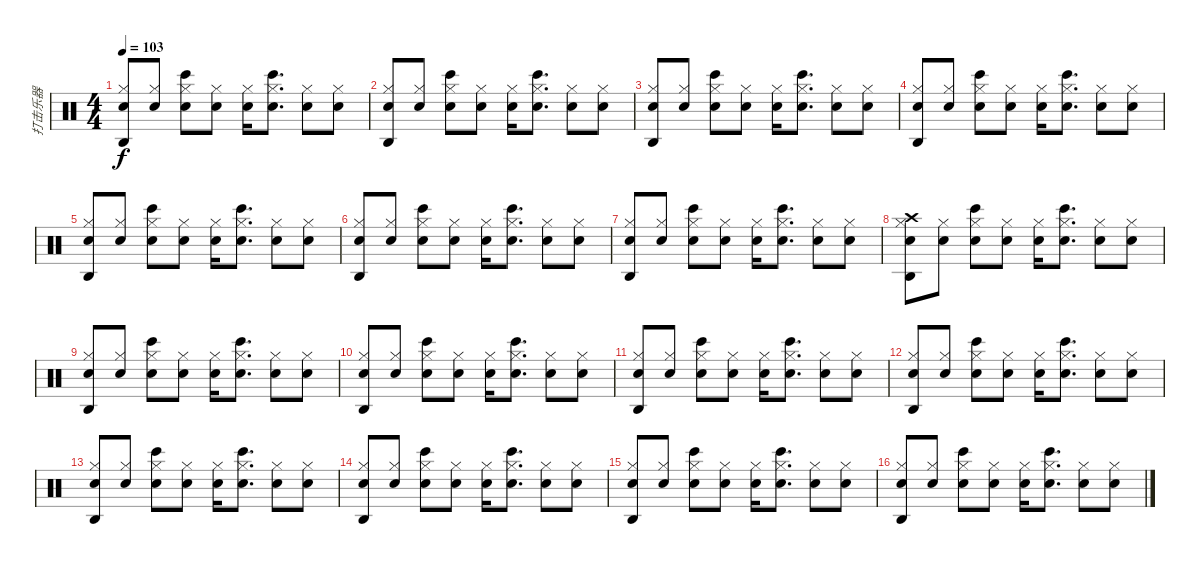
\track ("打击乐器" "打击乐器") {instrument percussion}
\staff {score}
\articulation defaults
\ts (4 4)
\tempo 103
\clef neutral
\ks c
("Hi-Hat (closed)" "Metronome (bell)" "Agogo high (hit)").8{dy f} ("Hi-Hat (closed)" "Metronome (bell)").8 ("Hi-Hat (closed)" "Metronome (bell)" "Bongo High (hit)").8 ("Hi-Hat (closed)" "Metronome (bell)").8 ("Hi-Hat (closed)" "Metronome (bell)").16 ("Hi-Hat (closed)" "Metronome (bell)" "Bongo High (hit)").8{d} ("Hi-Hat (closed)" "Metronome (bell)").8 ("Hi-Hat (closed)" "Metronome (bell)").8 |
("Hi-Hat (closed)" "Metronome (bell)" "Agogo high (hit)").8 ("Hi-Hat (closed)" "Metronome (bell)").8 ("Hi-Hat (closed)" "Metronome (bell)" "Bongo High (hit)").8 ("Hi-Hat (closed)" "Metronome (bell)").8 ("Hi-Hat (closed)" "Metronome (bell)").16 ("Hi-Hat (closed)" "Metronome (bell)" "Bongo High (hit)").8{d} ("Hi-Hat (closed)" "Metronome (bell)").8 ("Hi-Hat (closed)" "Metronome (bell)").8 |
("Hi-Hat (closed)" "Metronome (bell)" "Agogo high (hit)").8 ("Hi-Hat (closed)" "Metronome (bell)").8 ("Hi-Hat (closed)" "Metronome (bell)" "Bongo High (hit)").8 ("Hi-Hat (closed)" "Metronome (bell)").8 ("Hi-Hat (closed)" "Metronome (bell)").16 ("Hi-Hat (closed)" "Metronome (bell)" "Bongo High (hit)").8{d} ("Hi-Hat (closed)" "Metronome (bell)").8 ("Hi-Hat (closed)" "Metronome (bell)").8 |
("Hi-Hat (closed)" "Metronome (bell)" "Agogo high (hit)").8 ("Hi-Hat (closed)" "Metronome (bell)").8 ("Hi-Hat (closed)" "Metronome (bell)" "Bongo High (hit)").8 ("Hi-Hat (closed)" "Metronome (bell)").8 ("Hi-Hat (closed)" "Metronome (bell)").16 ("Hi-Hat (closed)" "Metronome (bell)" "Bongo High (hit)").8{d} ("Hi-Hat (closed)" "Metronome (bell)").8 ("Hi-Hat (closed)" "Metronome (bell)").8 |
("Hi-Hat (closed)" "Metronome (bell)" "Agogo high (hit)").8 ("Hi-Hat (closed)" "Metronome (bell)").8 ("Hi-Hat (closed)" "Metronome (bell)" "Bongo High (hit)").8 ("Hi-Hat (closed)" "Metronome (bell)").8 ("Hi-Hat (closed)" "Metronome (bell)").16 ("Hi-Hat (closed)" "Metronome (bell)" "Bongo High (hit)").8{d} ("Hi-Hat (closed)" "Metronome (bell)").8 ("Hi-Hat (closed)" "Metronome (bell)").8 |
("Hi-Hat (closed)" "Metronome (bell)" "Agogo high (hit)").8 ("Hi-Hat (closed)" "Metronome (bell)").8 ("Hi-Hat (closed)" "Metronome (bell)" "Bongo High (hit)").8 ("Hi-Hat (closed)" "Metronome (bell)").8 ("Hi-Hat (closed)" "Metronome (bell)").16 ("Hi-Hat (closed)" "Metronome (bell)" "Bongo High (hit)").8{d} ("Hi-Hat (closed)" "Metronome (bell)").8 ("Hi-Hat (closed)" "Metronome (bell)").8 |
("Hi-Hat (closed)" "Metronome (bell)" "Agogo high (hit)").8 ("Hi-Hat (closed)" "Metronome (bell)").8 ("Hi-Hat (closed)" "Metronome (bell)" "Bongo High (hit)").8 ("Hi-Hat (closed)" "Metronome (bell)").8 ("Hi-Hat (closed)" "Metronome (bell)").16 ("Hi-Hat (closed)" "Metronome (bell)" "Bongo High (hit)").8{d} ("Hi-Hat (closed)" "Metronome (bell)").8 ("Hi-Hat (closed)" "Metronome (bell)").8 |
("Hi-Hat (closed)" "Metronome (bell)" "Agogo high (hit)" "Crash high (hit)").8 ("Hi-Hat (closed)" "Metronome (bell)").8 ("Hi-Hat (closed)" "Metronome (bell)" "Bongo High (hit)").8 ("Hi-Hat (closed)" "Metronome (bell)").8 ("Hi-Hat (closed)" "Metronome (bell)").16 ("Hi-Hat (closed)" "Metronome (bell)" "Bongo High (hit)").8{d} ("Hi-Hat (closed)" "Metronome (bell)").8 ("Hi-Hat (closed)" "Metronome (bell)").8 |
("Hi-Hat (closed)" "Metronome (bell)" "Agogo high (hit)").8 ("Hi-Hat (closed)" "Metronome (bell)").8 ("Hi-Hat (closed)" "Metronome (bell)" "Bongo High (hit)").8 ("Hi-Hat (closed)" "Metronome (bell)").8 ("Hi-Hat (closed)" "Metronome (bell)").16 ("Hi-Hat (closed)" "Metronome (bell)" "Bongo High (hit)").8{d} ("Hi-Hat (closed)" "Metronome (bell)").8 ("Hi-Hat (closed)" "Metronome (bell)").8 |
("Hi-Hat (closed)" "Metronome (bell)" "Agogo high (hit)").8 ("Hi-Hat (closed)" "Metronome (bell)").8 ("Hi-Hat (closed)" "Metronome (bell)" "Bongo High (hit)").8 ("Hi-Hat (closed)" "Metronome (bell)").8 ("Hi-Hat (closed)" "Metronome (bell)").16 ("Hi-Hat (closed)" "Metronome (bell)" "Bongo High (hit)").8{d} ("Hi-Hat (closed)" "Metronome (bell)").8 ("Hi-Hat (closed)" "Metronome (bell)").8 |
("Hi-Hat (closed)" "Metronome (bell)" "Agogo high (hit)").8 ("Hi-Hat (closed)" "Metronome (bell)").8 ("Hi-Hat (closed)" "Metronome (bell)" "Bongo High (hit)").8 ("Hi-Hat (closed)" "Metronome (bell)").8 ("Hi-Hat (closed)" "Metronome (bell)").16 ("Hi-Hat (closed)" "Metronome (bell)" "Bongo High (hit)").8{d} ("Hi-Hat (closed)" "Metronome (bell)").8 ("Hi-Hat (closed)" "Metronome (bell)").8 |
("Hi-Hat (closed)" "Metronome (bell)" "Agogo high (hit)").8 ("Hi-Hat (closed)" "Metronome (bell)").8 ("Hi-Hat (closed)" "Metronome (bell)" "Bongo High (hit)").8 ("Hi-Hat (closed)" "Metronome (bell)").8 ("Hi-Hat (closed)" "Metronome (bell)").16 ("Hi-Hat (closed)" "Metronome (bell)" "Bongo High (hit)").8{d} ("Hi-Hat (closed)" "Metronome (bell)").8 ("Hi-Hat (closed)" "Metronome (bell)").8 |
("Hi-Hat (closed)" "Metronome (bell)" "Agogo high (hit)").8 ("Hi-Hat (closed)" "Metronome (bell)").8 ("Hi-Hat (closed)" "Metronome (bell)" "Bongo High (hit)").8 ("Hi-Hat (closed)" "Metronome (bell)").8 ("Hi-Hat (closed)" "Metronome (bell)").16 ("Hi-Hat (closed)" "Metronome (bell)" "Bongo High (hit)").8{d} ("Hi-Hat (closed)" "Metronome (bell)").8 ("Hi-Hat (closed)" "Metronome (bell)").8 |
("Hi-Hat (closed)" "Metronome (bell)" "Agogo high (hit)").8 ("Hi-Hat (closed)" "Metronome (bell)").8 ("Hi-Hat (closed)" "Metronome (bell)" "Bongo High (hit)").8 ("Hi-Hat (closed)" "Metronome (bell)").8 ("Hi-Hat (closed)" "Metronome (bell)").16 ("Hi-Hat (closed)" "Metronome (bell)" "Bongo High (hit)").8{d} ("Hi-Hat (closed)" "Metronome (bell)").8 ("Hi-Hat (closed)" "Metronome (bell)").8 |
("Hi-Hat (closed)" "Metronome (bell)" "Agogo high (hit)").8 ("Hi-Hat (closed)" "Metronome (bell)").8 ("Hi-Hat (closed)" "Metronome (bell)" "Bongo High (hit)").8 ("Hi-Hat (closed)" "Metronome (bell)").8 ("Hi-Hat (closed)" "Metronome (bell)").16 ("Hi-Hat (closed)" "Metronome (bell)" "Bongo High (hit)").8{d} ("Hi-Hat (closed)" "Metronome (bell)").8 ("Hi-Hat (closed)" "Metronome (bell)").8 |
("Hi-Hat (closed)" "Metronome (bell)" "Agogo high (hit)").8 ("Hi-Hat (closed)" "Metronome (bell)").8 ("Hi-Hat (closed)" "Metronome (bell)" "Bongo High (hit)").8 ("Hi-Hat (closed)" "Metronome (bell)").8 ("Hi-Hat (closed)" "Metronome (bell)").16 ("Hi-Hat (closed)" "Metronome (bell)" "Bongo High (hit)").8{d} ("Hi-Hat (closed)" "Metronome (bell)").8 ("Hi-Hat (closed)" "Metronome (bell)").8
